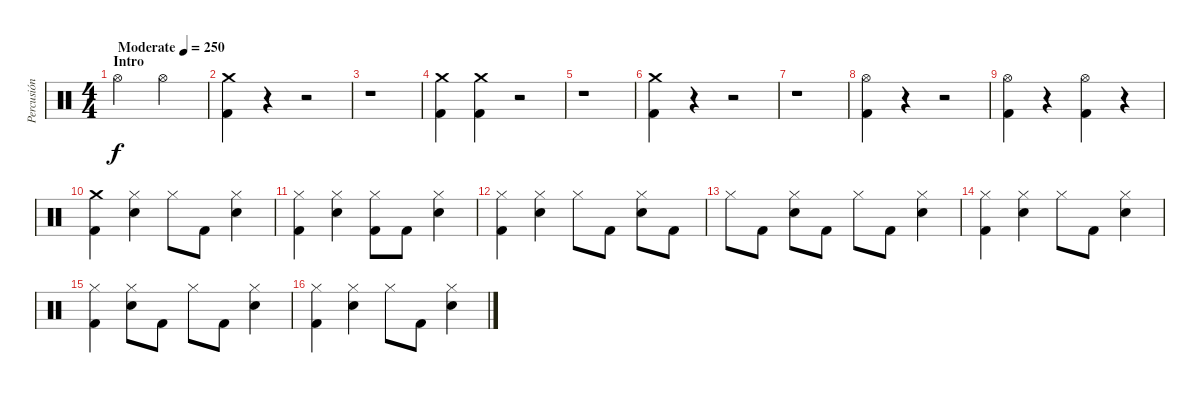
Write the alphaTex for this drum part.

\track ("Percusión" "Percusión") {instrument percussion}
\staff {score}
\articulation defaults
\ts (4 4)
\section ("" "Intro")
\tempo (250 "Moderate")
\clef neutral
\ks c "Hi-Hat (open)".2{dy f} "Hi-Hat (open)".2
|
("Crash medium (hit)" "Kick (hit) 2").4 r.4 r.2 |
r.1 |
("Crash medium (hit)" "Kick (hit) 2").4 ("Crash medium (hit)" "Kick (hit) 2").4 r.2 |
r.1 |
("Crash medium (hit)" "Kick (hit) 2").4 r.4 r.2 |
r.1 |
("Hi-Hat (open)" "Kick (hit) 2").4 r.4 r.2 |
("Hi-Hat (open)" "Kick (hit) 2").4 r.4 ("Hi-Hat (open)" "Kick (hit) 2").4 r.4 |
("Crash medium (hit)" "Kick (hit) 2").4 ("Electric Snare (hit)" "Hi-Hat (closed)").4 "Hi-Hat (closed)".8 "Kick (hit) 2".8 ("Electric Snare (hit)" "Hi-Hat (closed)").4 |
("Hi-Hat (closed)" "Kick (hit) 2").4 ("Electric Snare (hit)" "Hi-Hat (closed)").4 ("Hi-Hat (closed)" "Kick (hit) 2").8 "Kick (hit) 2".8 ("Electric Snare (hit)" "Hi-Hat (closed)").4 |
("Hi-Hat (closed)" "Kick (hit) 2").4 ("Electric Snare (hit)" "Hi-Hat (closed)").4 "Hi-Hat (closed)".8 "Kick (hit) 2".8 ("Electric Snare (hit)" "Hi-Hat (closed)").8 "Kick (hit) 2".8 |
"Hi-Hat (closed)".8 "Kick (hit) 2".8 ("Electric Snare (hit)" "Hi-Hat (closed)").8 "Kick (hit) 2".8 "Hi-Hat (closed)".8 "Kick (hit) 2".8 ("Electric Snare (hit)" "Hi-Hat (closed)").4 |
("Hi-Hat (closed)" "Kick (hit) 2").4 ("Electric Snare (hit)" "Hi-Hat (closed)").4 "Hi-Hat (closed)".8 "Kick (hit) 2".8 ("Electric Snare (hit)" "Hi-Hat (closed)").4 |
("Hi-Hat (closed)" "Kick (hit) 2").4 ("Electric Snare (hit)" "Hi-Hat (closed)").8 "Kick (hit) 2".8 "Hi-Hat (closed)".8 "Kick (hit) 2".8 ("Electric Snare (hit)" "Hi-Hat (closed)").4 |
("Hi-Hat (closed)" "Kick (hit) 2").4 ("Electric Snare (hit)" "Hi-Hat (closed)").4 "Hi-Hat (closed)".8 "Kick (hit) 2".8 ("Electric Snare (hit)" "Hi-Hat (closed)").4
